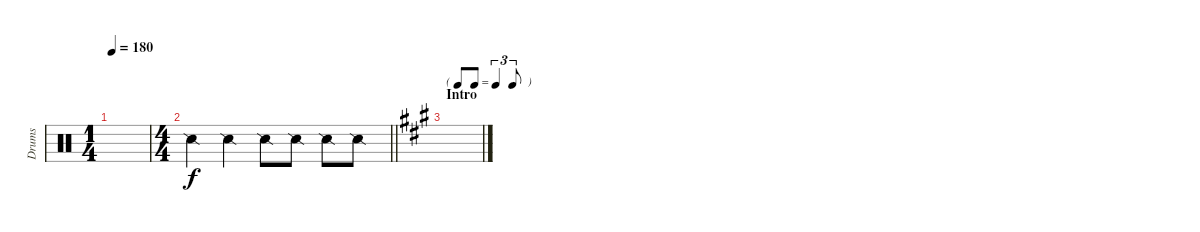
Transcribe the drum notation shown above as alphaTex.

\track ("Drums" "Drums") {instrument percussion}
\staff {score}
\articulation defaults
\ts (1 4)
\tempo 180
\clef neutral
\ks c
|
\ts (4 4)
\barLineRight lightlight "Snare (side stick) 2".4 "Snare (side stick) 2".4 "Snare (side stick) 2".8 "Snare (side stick) 2".8 "Snare (side stick) 2".8 "Snare (side stick) 2".8
|
\tf triplet8th
\section ("" "Intro")
\ks a
